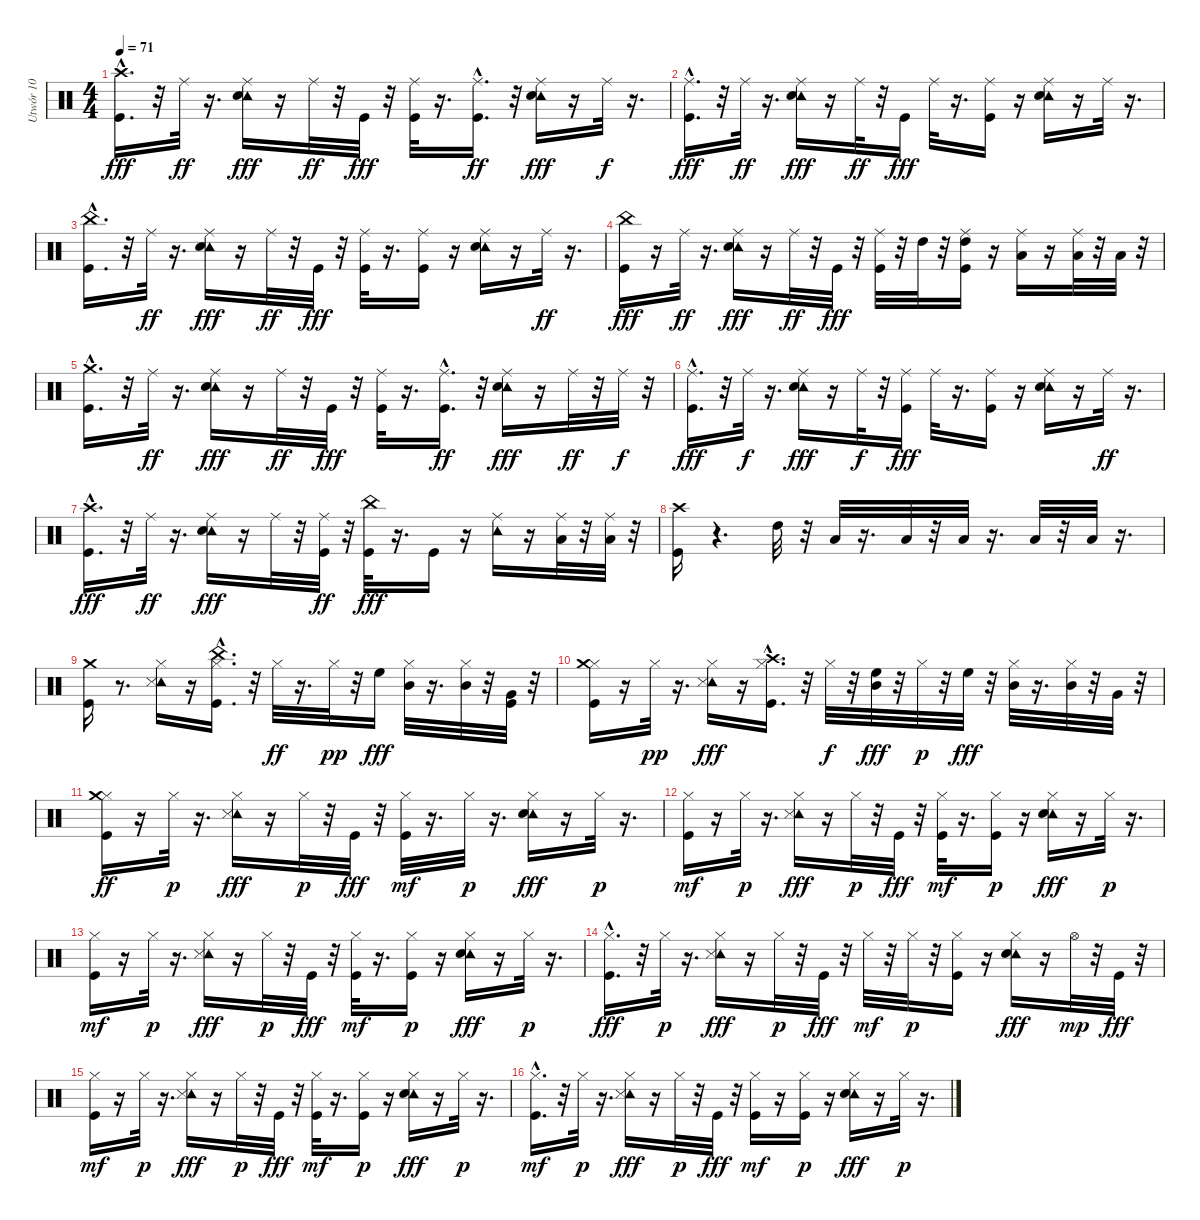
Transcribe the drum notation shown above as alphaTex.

\track ("Utwór 10" "Utwór 10") {instrument percussion}
\staff {score}
\articulation defaults
\ts (4 4)
\tempo 71
\clef neutral
\ks c
("Kick (hit)"{hac} "Crash high (hit)").16{d dy fff} r.32 "Ride (middle)".32{dy ff} r.16{d} ("Ride (middle)" "Tambourine (hit)" "Snare (hit) 2").16{dy fff} r.16 "Ride (middle)".32{dy ff} r.32 "Kick (hit)".32{dy fff} r.32 ("Kick (hit)" "Ride (middle)").32 r.16{d} ("Kick (hit)"{hac} "Ride (middle)").16{d dy ff} r.32 ("Ride (middle)" "Tambourine (hit)" "Snare (hit) 2").16{dy fff} r.16 "Ride (middle)".32{dy f} r.16{d} |
("Kick (hit)"{hac} "Ride (middle)").16{d dy fff} r.32 "Ride (middle)".32{dy ff} r.16{d} ("Ride (middle)" "Tambourine (hit)" "Snare (hit) 2").16{dy fff} r.16 "Ride (middle)".32{dy ff} r.32 "Kick (hit)".16{dy fff} "Ride (middle)".32 r.16{d} ("Kick (hit)" "Ride (middle)").16 r.16 ("Ride (middle)" "Tambourine (hit)" "Snare (hit) 2").16 r.16 "Ride (middle)".32 r.16{d} |
("Kick (hit)"{hac} "China (hit)").16{d} r.32 "Ride (middle)".32{dy ff} r.16{d} ("Ride (middle)" "Tambourine (hit)" "Snare (hit) 2").16{dy fff} r.16 "Ride (middle)".32{dy ff} r.32 "Kick (hit)".32{dy fff} r.32 ("Kick (hit)" "Ride (middle)").32 r.16{d} ("Kick (hit)" "Ride (middle)").16 r.16 ("Ride (middle)" "Tambourine (hit)" "Snare (hit) 2").16 r.16 "Ride (middle)".32{dy ff} r.16{d} |
("Kick (hit)" "China (hit)").16{dy fff} r.16 "Ride (middle)".32{dy ff} r.16{d} ("Ride (middle)" "Tambourine (hit)" "Snare (hit) 2").16{dy fff} r.16 "Ride (middle)".32{dy ff} r.32 "Kick (hit)".32{dy fff} r.32 ("Kick (hit)" "Ride (middle)").32 r.32 "High Tom (hit)".32 r.32 ("Kick (hit)" "Ride (middle)" "High Tom (hit)").16 r.16 ("Ride (middle)" "Low Tom (hit)").16 r.16 ("Ride (middle)" "Low Tom (hit)").32 r.32 "Low Floor Tom (hit)".32 r.32 |
("Kick (hit)"{hac} "Crash medium (hit)").16{d} r.32 "Ride (middle)".32{dy ff} r.16{d} ("Ride (middle)" "Tambourine (hit)" "Snare (hit) 2").16{dy fff} r.16 "Ride (middle)".32{dy ff} r.32 "Kick (hit)".32{dy fff} r.32 ("Kick (hit)" "Ride (middle)").32 r.16{d} ("Kick (hit)"{hac} "Ride (middle)").16{d dy ff} r.32 ("Ride (middle)" "Tambourine (hit)" "Snare (hit) 2").16{dy fff} r.16 "Ride (middle)".32{dy ff} r.32 "Ride (middle)".32{dy f} r.32 |
("Kick (hit)"{hac} "Ride (middle)").16{d dy fff} r.32 "Ride (middle)".32{dy f} r.16{d} ("Ride (middle)" "Tambourine (hit)" "Snare (hit) 2").16{dy fff} r.16 "Ride (middle)".32{dy f} r.32 ("Kick (hit)" "Ride (middle)").16{dy fff} "Ride (middle)".32 r.16{d} ("Kick (hit)" "Ride (middle)").16 r.16 ("Ride (middle)" "Tambourine (hit)" "Snare (hit) 2").16 r.16 "Ride (middle)".32{dy ff} r.16{d} |
("Kick (hit)"{hac} "Crash high (hit)").16{d dy fff} r.32 "Ride (middle)".32{dy ff} r.16{d} ("Ride (middle)" "Tambourine (hit)" "Snare (hit) 2").16{dy fff} r.16 "Ride (middle)".32 r.32 ("Kick (hit)" "Ride (middle)").32{dy ff} r.32 ("Kick (hit)" "China (hit)").32{dy fff} r.16{d} "Kick (hit)".16 r.16 ("Ride (middle)" "Tambourine (hit)").16 r.16 ("Ride (middle)" "Low Tom (hit)").32 r.32 ("Ride (middle)" "Low Floor Tom (hit)").32 r.32 |
("Kick (hit)" "Crash high (hit)").16 r.4{d} "High Tom (hit)".32 r.32 "Low Tom (hit)".32 r.16{d} "Low Tom (hit)".32 r.32 "Low Tom (hit)".32 r.16{d} "Low Tom (hit)".32 r.32 "Low Floor Tom (hit)".32 r.16{d} |
("Kick (hit)" "Crash medium (hit)").16 r.8{d} ("Hi-Hat (closed)" "Tambourine (hit)" "Snare (side stick) 3").16 r.16 ("Kick (hit)"{hac} "Hi-Hat (closed)" "China (hit)").16{d} r.32 "Hi-Hat (closed)".32{dy ff} r.16{d} "Hi-Hat (closed)".32{dy pp} r.32 "High Floor Tom (hit)".16{dy fff} ("Hi-Hat (closed)" "Mid Tom (hit)").32 r.16{d} ("Hi-Hat (closed)" "Mid Tom (hit)").32 r.32 ("Kick (hit)" "Very Low Tom (hit)").32 r.32 |
("Kick (hit)" "Hi-Hat (closed)" "Crash medium (hit)").16 r.16 "Hi-Hat (closed)".32{dy pp} r.16{d} ("Hi-Hat (closed)" "Tambourine (hit)" "Snare (side stick) 3").16{dy fff} r.16 ("Kick (hit)"{hac} "Hi-Hat (closed)" "Crash high (hit)").16{d} r.32 "Hi-Hat (closed)".32{dy f} r.32 ("High Floor Tom (hit)" "Mid Tom (hit)").32{dy fff} r.32 "Hi-Hat (closed)".32{dy p} r.32 "High Floor Tom (hit)".32{dy fff} r.32 ("Hi-Hat (closed)" "Mid Tom (hit)").32 r.16{d} ("Hi-Hat (closed)" "Mid Tom (hit)").32 r.32 "Very Low Tom (hit)".32 r.32 |
("Kick (hit)" "Hi-Hat (closed)" "Crash medium (hit)").16{dy ff} r.16 "Hi-Hat (closed)".32{dy p} r.16{d} ("Hi-Hat (closed)" "Tambourine (hit)" "Snare (side stick) 3").16{dy fff} r.16 "Hi-Hat (closed)".32{dy p} r.32 "Kick (hit)".32{dy fff} r.32 ("Kick (hit)" "Hi-Hat (closed)").32{dy mf} r.16{d} "Hi-Hat (closed)".32{dy p} r.16{d} ("Hi-Hat (closed)" "Tambourine (hit)" "Snare (hit) 2").16{dy fff} r.16 "Hi-Hat (closed)".32{dy p} r.16{d} |
("Kick (hit)" "Hi-Hat (closed)").16{dy mf} r.16 "Hi-Hat (closed)".32{dy p} r.16{d} ("Hi-Hat (closed)" "Tambourine (hit)" "Snare (side stick) 3").16{dy fff} r.16 "Hi-Hat (closed)".32{dy p} r.32 "Kick (hit)".32{dy fff} r.32 ("Kick (hit)" "Hi-Hat (closed)").32{dy mf} r.16{d} ("Kick (hit)" "Hi-Hat (closed)").16{dy p} r.16 ("Hi-Hat (closed)" "Tambourine (hit)" "Snare (hit) 2").16{dy fff} r.16 "Hi-Hat (closed)".32{dy p} r.16{d} |
("Kick (hit)" "Hi-Hat (closed)").16{dy mf} r.16 "Hi-Hat (closed)".32{dy p} r.16{d} ("Hi-Hat (closed)" "Tambourine (hit)" "Snare (side stick) 3").16{dy fff} r.16 "Hi-Hat (closed)".32{dy p} r.32 "Kick (hit)".32{dy fff} r.32 ("Kick (hit)" "Hi-Hat (closed)").32{dy mf} r.16{d} ("Kick (hit)" "Hi-Hat (closed)").16{dy p} r.16 ("Hi-Hat (closed)" "Tambourine (hit)" "Snare (hit) 2").16{dy fff} r.16 "Hi-Hat (closed)".32{dy p} r.16{d} |
("Kick (hit)"{hac} "Hi-Hat (closed)").16{d dy fff} r.32 "Hi-Hat (closed)".32{dy p} r.16{d} ("Hi-Hat (closed)" "Tambourine (hit)" "Snare (side stick) 3").16{dy fff} r.16 "Hi-Hat (closed)".32{dy p} r.32 "Kick (hit)".32{dy fff} r.32 "Hi-Hat (closed)".32{dy mf} r.32 "Hi-Hat (closed)".32{dy p} r.32 ("Kick (hit)" "Hi-Hat (closed)").16 r.16 ("Hi-Hat (closed)" "Tambourine (hit)" "Snare (hit) 2").16{dy fff} r.16 "Hi-Hat (open)".32{dy mp} r.32 "Kick (hit)".32{dy fff} r.32 |
("Kick (hit)" "Hi-Hat (closed)").16{dy mf} r.16 "Hi-Hat (closed)".32{dy p} r.16{d} ("Hi-Hat (closed)" "Tambourine (hit)" "Snare (side stick) 3").16{dy fff} r.16 "Hi-Hat (closed)".32{dy p} r.32 "Kick (hit)".32{dy fff} r.32 ("Kick (hit)" "Hi-Hat (closed)").32{dy mf} r.16{d} ("Kick (hit)" "Hi-Hat (closed)").16{dy p} r.16 ("Hi-Hat (closed)" "Tambourine (hit)" "Snare (hit) 2").16{dy fff} r.16 "Hi-Hat (closed)".32{dy p} r.16{d} |
("Kick (hit)"{hac} "Hi-Hat (closed)").16{d dy mf} r.32 "Hi-Hat (closed)".32{dy p} r.16{d} ("Hi-Hat (closed)" "Tambourine (hit)" "Snare (side stick) 3").16{dy fff} r.16 "Hi-Hat (closed)".32{dy p} r.32 "Kick (hit)".32{dy fff} r.32 ("Kick (hit)" "Hi-Hat (closed)").16{dy mf} r.16 ("Kick (hit)" "Hi-Hat (closed)").16{dy p} r.16 ("Hi-Hat (closed)" "Tambourine (hit)" "Snare (hit) 2").16{dy fff} r.16 "Hi-Hat (closed)".32{dy p} r.16{d}
